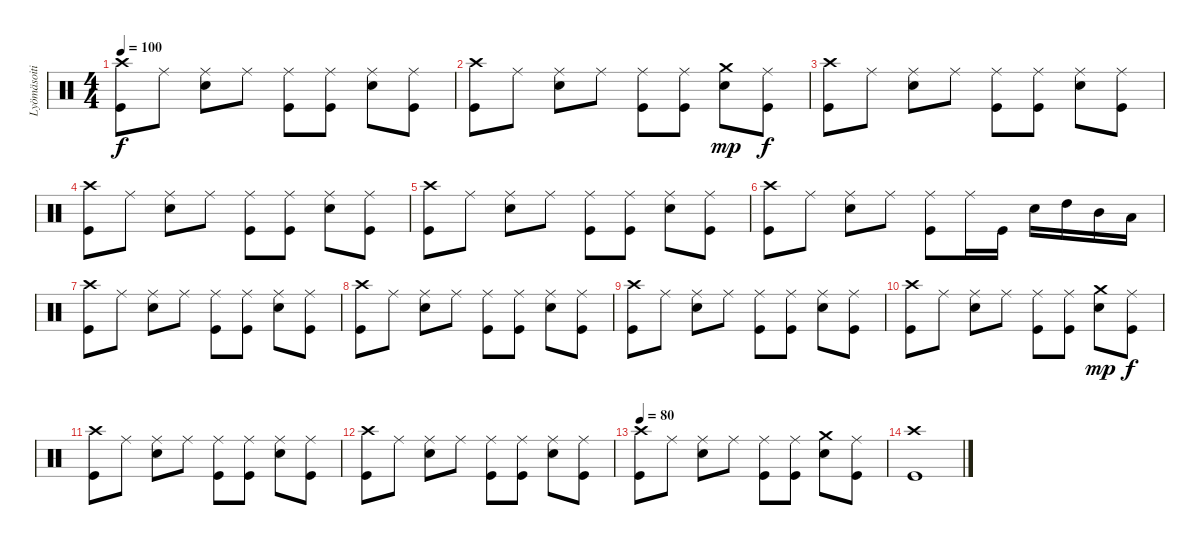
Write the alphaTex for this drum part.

\track ("Lyömäsoitin" "Lyömäsoiti") {instrument percussion}
\staff {score}
\articulation defaults
\ts (4 4)
\tempo 100
\clef neutral
\ks c
("Crash high (hit)" "Kick (hit)").8{dy f} "Ride (middle)".8 ("Ride (middle)" "Electric Snare (hit)").8 "Ride (middle)".8 ("Ride (middle)" "Kick (hit)").8 ("Ride (middle)" "Kick (hit)").8 ("Ride (middle)" "Electric Snare (hit)").8 ("Ride (middle)" "Kick (hit)").8 |
("Crash high (hit)" "Kick (hit)").8 "Ride (middle)".8 ("Ride (middle)" "Electric Snare (hit)").8 "Ride (middle)".8 ("Ride (middle)" "Kick (hit)").8 ("Ride (middle)" "Kick (hit)").8 ("Crash medium (hit)" "Electric Snare (hit)").8{dy mp} ("Ride (middle)" "Kick (hit)").8{dy f} |
("Crash high (hit)" "Kick (hit)").8 "Ride (middle)".8 ("Ride (middle)" "Electric Snare (hit)").8 "Ride (middle)".8 ("Ride (middle)" "Kick (hit)").8 ("Ride (middle)" "Kick (hit)").8 ("Ride (middle)" "Electric Snare (hit)").8 ("Ride (middle)" "Kick (hit)").8 |
("Crash high (hit)" "Kick (hit)").8 "Ride (middle)".8 ("Ride (middle)" "Electric Snare (hit)").8 "Ride (middle)".8 ("Ride (middle)" "Kick (hit)").8 ("Ride (middle)" "Kick (hit)").8 ("Ride (middle)" "Electric Snare (hit)").8 ("Ride (middle)" "Kick (hit)").8 |
("Crash high (hit)" "Kick (hit)").8 "Ride (middle)".8 ("Ride (middle)" "Electric Snare (hit)").8 "Ride (middle)".8 ("Ride (middle)" "Kick (hit)").8 ("Ride (middle)" "Kick (hit)").8 ("Ride (middle)" "Electric Snare (hit)").8 ("Ride (middle)" "Kick (hit)").8 |
("Crash high (hit)" "Kick (hit)").8 "Ride (middle)".8 ("Ride (middle)" "Electric Snare (hit)").8 "Ride (middle)".8 ("Ride (middle)" "Kick (hit)").8 "Ride (middle)".16 "Kick (hit)".16 "Electric Snare (hit)".16 "High Tom (hit)".16 "Mid Tom (hit)".16 "Low Tom (hit)".16 |
("Crash high (hit)" "Kick (hit)").8 "Ride (middle)".8 ("Ride (middle)" "Electric Snare (hit)").8 "Ride (middle)".8 ("Ride (middle)" "Kick (hit)").8 ("Ride (middle)" "Kick (hit)").8 ("Ride (middle)" "Electric Snare (hit)").8 ("Ride (middle)" "Kick (hit)").8 |
("Crash high (hit)" "Kick (hit)").8 "Ride (middle)".8 ("Ride (middle)" "Electric Snare (hit)").8 "Ride (middle)".8 ("Ride (middle)" "Kick (hit)").8 ("Ride (middle)" "Kick (hit)").8 ("Ride (middle)" "Electric Snare (hit)").8 ("Ride (middle)" "Kick (hit)").8 |
("Crash high (hit)" "Kick (hit)").8 "Ride (middle)".8 ("Ride (middle)" "Electric Snare (hit)").8 "Ride (middle)".8 ("Ride (middle)" "Kick (hit)").8 ("Ride (middle)" "Kick (hit)").8 ("Ride (middle)" "Electric Snare (hit)").8 ("Ride (middle)" "Kick (hit)").8 |
("Crash high (hit)" "Kick (hit)").8 "Ride (middle)".8 ("Ride (middle)" "Electric Snare (hit)").8 "Ride (middle)".8 ("Ride (middle)" "Kick (hit)").8 ("Ride (middle)" "Kick (hit)").8 ("Crash medium (hit)" "Electric Snare (hit)").8{dy mp} ("Ride (middle)" "Kick (hit)").8{dy f} |
("Crash high (hit)" "Kick (hit)").8 "Ride (middle)".8 ("Ride (middle)" "Electric Snare (hit)").8 "Ride (middle)".8 ("Ride (middle)" "Kick (hit)").8 ("Ride (middle)" "Kick (hit)").8 ("Ride (middle)" "Electric Snare (hit)").8 ("Ride (middle)" "Kick (hit)").8 |
("Crash high (hit)" "Kick (hit)").8 "Ride (middle)".8 ("Ride (middle)" "Electric Snare (hit)").8 "Ride (middle)".8 ("Ride (middle)" "Kick (hit)").8 ("Ride (middle)" "Kick (hit)").8 ("Ride (middle)" "Electric Snare (hit)").8 ("Ride (middle)" "Kick (hit)").8 |
\tempo 80
("Crash high (hit)" "Kick (hit)").8 "Ride (middle)".8 ("Ride (middle)" "Electric Snare (hit)").8 "Ride (middle)".8 ("Ride (middle)" "Kick (hit)").8 ("Ride (middle)" "Kick (hit)").8 ("Crash medium (hit)" "Electric Snare (hit)").8 ("Ride (middle)" "Kick (hit)").8 |
("Crash high (hit)" "Kick (hit)").1
